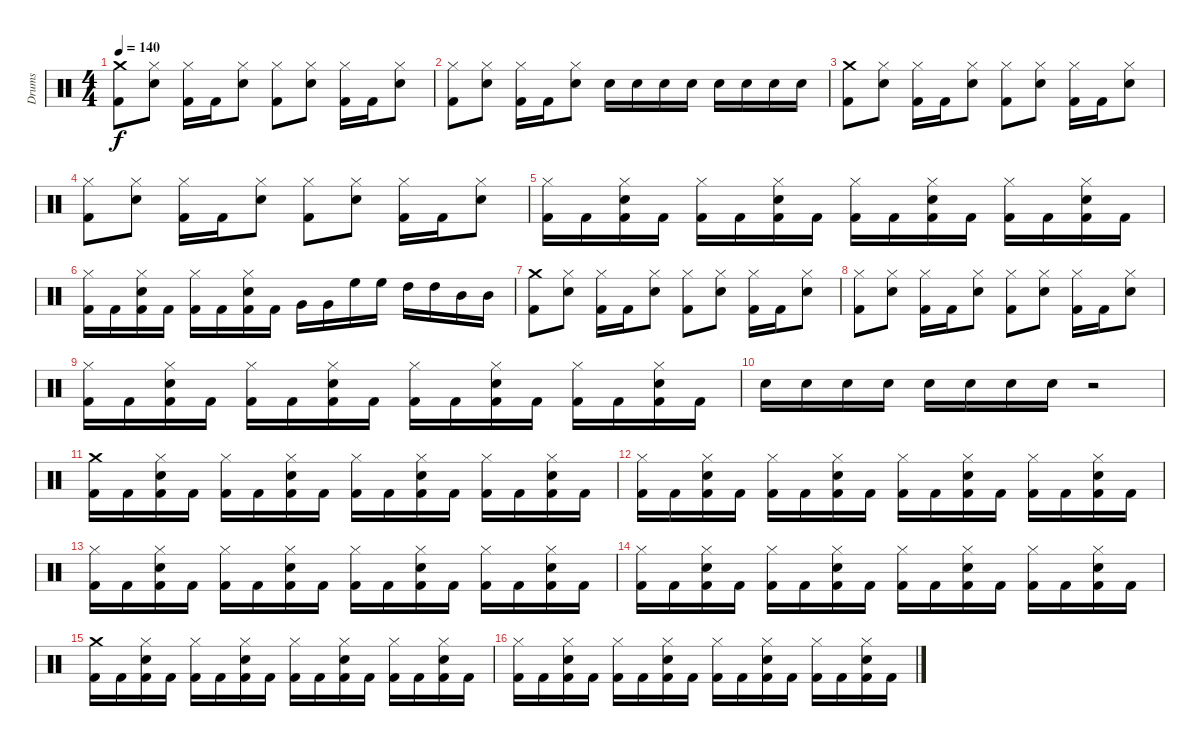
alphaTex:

\track ("Drums" "Drums") {instrument percussion}
\staff {score}
\articulation defaults
\ts (4 4)
\tempo 140
\clef neutral
\ks c
("Crash medium (hit)" "Kick (hit) 2").8{dy f} ("Hi-Hat (closed)" "Electric Snare (hit)").8 ("Hi-Hat (closed)" "Kick (hit) 2").16 "Kick (hit) 2".16 ("Hi-Hat (closed)" "Electric Snare (hit)").8 ("Hi-Hat (closed)" "Kick (hit) 2").8 ("Hi-Hat (closed)" "Electric Snare (hit)").8 ("Hi-Hat (closed)" "Kick (hit) 2").16 "Kick (hit) 2".16 ("Hi-Hat (closed)" "Electric Snare (hit)").8 |
("Hi-Hat (closed)" "Kick (hit) 2").8 ("Hi-Hat (closed)" "Electric Snare (hit)").8 ("Hi-Hat (closed)" "Kick (hit) 2").16 "Kick (hit) 2".16 ("Hi-Hat (closed)" "Electric Snare (hit)").8 "Electric Snare (hit)".16 "Electric Snare (hit)".16 "Electric Snare (hit)".16 "Electric Snare (hit)".16 "Electric Snare (hit)".16 "Electric Snare (hit)".16 "Electric Snare (hit)".16 "Electric Snare (hit)".16 |
("Crash medium (hit)" "Kick (hit) 2").8 ("Hi-Hat (closed)" "Electric Snare (hit)").8 ("Hi-Hat (closed)" "Kick (hit) 2").16 "Kick (hit) 2".16 ("Hi-Hat (closed)" "Electric Snare (hit)").8 ("Hi-Hat (closed)" "Kick (hit) 2").8 ("Hi-Hat (closed)" "Electric Snare (hit)").8 ("Hi-Hat (closed)" "Kick (hit) 2").16 "Kick (hit) 2".16 ("Hi-Hat (closed)" "Electric Snare (hit)").8 |
("Hi-Hat (closed)" "Kick (hit) 2").8 ("Hi-Hat (closed)" "Electric Snare (hit)").8 ("Hi-Hat (closed)" "Kick (hit) 2").16 "Kick (hit) 2".16 ("Hi-Hat (closed)" "Electric Snare (hit)").8 ("Hi-Hat (closed)" "Kick (hit) 2").8 ("Hi-Hat (closed)" "Electric Snare (hit)").8 ("Hi-Hat (closed)" "Kick (hit) 2").16 "Kick (hit) 2".16 ("Hi-Hat (closed)" "Electric Snare (hit)").8 |
("Hi-Hat (closed)" "Kick (hit) 2").16 "Kick (hit) 2".16 ("Hi-Hat (closed)" "Electric Snare (hit)" "Kick (hit) 2").16 "Kick (hit) 2".16 ("Hi-Hat (closed)" "Kick (hit) 2").16 "Kick (hit) 2".16 ("Hi-Hat (closed)" "Electric Snare (hit)" "Kick (hit) 2").16 "Kick (hit) 2".16 ("Hi-Hat (closed)" "Kick (hit) 2").16 "Kick (hit) 2".16 ("Hi-Hat (closed)" "Electric Snare (hit)" "Kick (hit) 2").16 "Kick (hit) 2".16 ("Hi-Hat (closed)" "Kick (hit) 2").16 "Kick (hit) 2".16 ("Hi-Hat (closed)" "Electric Snare (hit)" "Kick (hit) 2").16 "Kick (hit) 2".16 |
("Hi-Hat (closed)" "Kick (hit) 2").16 "Kick (hit) 2".16 ("Hi-Hat (closed)" "Electric Snare (hit)" "Kick (hit) 2").16 "Kick (hit) 2".16 ("Hi-Hat (closed)" "Kick (hit) 2").16 "Kick (hit) 2".16 ("Hi-Hat (closed)" "Electric Snare (hit)" "Kick (hit) 2").16 "Kick (hit) 2".16 "Very Low Tom (hit)".16 "Very Low Tom (hit)".16 "High Floor Tom (hit)".16 "High Floor Tom (hit)".16 "High Tom (hit)".16 "High Tom (hit)".16 "Mid Tom (hit)".16 "Mid Tom (hit)".16 |
("Crash medium (hit)" "Kick (hit) 2").8 ("Hi-Hat (closed)" "Electric Snare (hit)").8 ("Hi-Hat (closed)" "Kick (hit) 2").16 "Kick (hit) 2".16 ("Hi-Hat (closed)" "Electric Snare (hit)").8 ("Hi-Hat (closed)" "Kick (hit) 2").8 ("Hi-Hat (closed)" "Electric Snare (hit)").8 ("Hi-Hat (closed)" "Kick (hit) 2").16 "Kick (hit) 2".16 ("Hi-Hat (closed)" "Electric Snare (hit)").8 |
("Hi-Hat (closed)" "Kick (hit) 2").8 ("Hi-Hat (closed)" "Electric Snare (hit)").8 ("Hi-Hat (closed)" "Kick (hit) 2").16 "Kick (hit) 2".16 ("Hi-Hat (closed)" "Electric Snare (hit)").8 ("Hi-Hat (closed)" "Kick (hit) 2").8 ("Hi-Hat (closed)" "Electric Snare (hit)").8 ("Hi-Hat (closed)" "Kick (hit) 2").16 "Kick (hit) 2".16 ("Hi-Hat (closed)" "Electric Snare (hit)").8 |
("Hi-Hat (closed)" "Kick (hit) 2").16 "Kick (hit) 2".16 ("Hi-Hat (closed)" "Electric Snare (hit)" "Kick (hit) 2").16 "Kick (hit) 2".16 ("Hi-Hat (closed)" "Kick (hit) 2").16 "Kick (hit) 2".16 ("Hi-Hat (closed)" "Electric Snare (hit)" "Kick (hit) 2").16 "Kick (hit) 2".16 ("Hi-Hat (closed)" "Kick (hit) 2").16 "Kick (hit) 2".16 ("Hi-Hat (closed)" "Electric Snare (hit)" "Kick (hit) 2").16 "Kick (hit) 2".16 ("Hi-Hat (closed)" "Kick (hit) 2").16 "Kick (hit) 2".16 ("Hi-Hat (closed)" "Electric Snare (hit)" "Kick (hit) 2").16 "Kick (hit) 2".16 |
"Electric Snare (hit)".16 "Electric Snare (hit)".16 "Electric Snare (hit)".16 "Electric Snare (hit)".16 "Electric Snare (hit)".16 "Electric Snare (hit)".16 "Electric Snare (hit)".16 "Electric Snare (hit)".16 r.2 |
("Crash medium (hit)" "Kick (hit) 2").16 "Kick (hit) 2".16 ("Hi-Hat (closed)" "Electric Snare (hit)" "Kick (hit) 2").16 "Kick (hit) 2".16 ("Hi-Hat (closed)" "Kick (hit) 2").16 "Kick (hit) 2".16 ("Hi-Hat (closed)" "Electric Snare (hit)" "Kick (hit) 2").16 "Kick (hit) 2".16 ("Hi-Hat (closed)" "Kick (hit) 2").16 "Kick (hit) 2".16 ("Hi-Hat (closed)" "Electric Snare (hit)" "Kick (hit) 2").16 "Kick (hit) 2".16 ("Hi-Hat (closed)" "Kick (hit) 2").16 "Kick (hit) 2".16 ("Hi-Hat (closed)" "Electric Snare (hit)" "Kick (hit) 2").16 "Kick (hit) 2".16 |
("Hi-Hat (closed)" "Kick (hit) 2").16 "Kick (hit) 2".16 ("Hi-Hat (closed)" "Electric Snare (hit)" "Kick (hit) 2").16 "Kick (hit) 2".16 ("Hi-Hat (closed)" "Kick (hit) 2").16 "Kick (hit) 2".16 ("Hi-Hat (closed)" "Electric Snare (hit)" "Kick (hit) 2").16 "Kick (hit) 2".16 ("Hi-Hat (closed)" "Kick (hit) 2").16 "Kick (hit) 2".16 ("Hi-Hat (closed)" "Electric Snare (hit)" "Kick (hit) 2").16 "Kick (hit) 2".16 ("Hi-Hat (closed)" "Kick (hit) 2").16 "Kick (hit) 2".16 ("Hi-Hat (closed)" "Electric Snare (hit)" "Kick (hit) 2").16 "Kick (hit) 2".16 |
("Hi-Hat (closed)" "Kick (hit) 2").16 "Kick (hit) 2".16 ("Hi-Hat (closed)" "Electric Snare (hit)" "Kick (hit) 2").16 "Kick (hit) 2".16 ("Hi-Hat (closed)" "Kick (hit) 2").16 "Kick (hit) 2".16 ("Hi-Hat (closed)" "Electric Snare (hit)" "Kick (hit) 2").16 "Kick (hit) 2".16 ("Hi-Hat (closed)" "Kick (hit) 2").16 "Kick (hit) 2".16 ("Hi-Hat (closed)" "Electric Snare (hit)" "Kick (hit) 2").16 "Kick (hit) 2".16 ("Hi-Hat (closed)" "Kick (hit) 2").16 "Kick (hit) 2".16 ("Hi-Hat (closed)" "Electric Snare (hit)" "Kick (hit) 2").16 "Kick (hit) 2".16 |
("Hi-Hat (closed)" "Kick (hit) 2").16 "Kick (hit) 2".16 ("Hi-Hat (closed)" "Electric Snare (hit)" "Kick (hit) 2").16 "Kick (hit) 2".16 ("Hi-Hat (closed)" "Kick (hit) 2").16 "Kick (hit) 2".16 ("Hi-Hat (closed)" "Electric Snare (hit)" "Kick (hit) 2").16 "Kick (hit) 2".16 ("Hi-Hat (closed)" "Kick (hit) 2").16 "Kick (hit) 2".16 ("Hi-Hat (closed)" "Electric Snare (hit)" "Kick (hit) 2").16 "Kick (hit) 2".16 ("Hi-Hat (closed)" "Kick (hit) 2").16 "Kick (hit) 2".16 ("Hi-Hat (closed)" "Electric Snare (hit)" "Kick (hit) 2").16 "Kick (hit) 2".16 |
("Crash medium (hit)" "Kick (hit) 2").16 "Kick (hit) 2".16 ("Hi-Hat (closed)" "Electric Snare (hit)" "Kick (hit) 2").16 "Kick (hit) 2".16 ("Hi-Hat (closed)" "Kick (hit) 2").16 "Kick (hit) 2".16 ("Hi-Hat (closed)" "Electric Snare (hit)" "Kick (hit) 2").16 "Kick (hit) 2".16 ("Hi-Hat (closed)" "Kick (hit) 2").16 "Kick (hit) 2".16 ("Hi-Hat (closed)" "Electric Snare (hit)" "Kick (hit) 2").16 "Kick (hit) 2".16 ("Hi-Hat (closed)" "Kick (hit) 2").16 "Kick (hit) 2".16 ("Hi-Hat (closed)" "Electric Snare (hit)" "Kick (hit) 2").16 "Kick (hit) 2".16 |
("Hi-Hat (closed)" "Kick (hit) 2").16 "Kick (hit) 2".16 ("Hi-Hat (closed)" "Electric Snare (hit)" "Kick (hit) 2").16 "Kick (hit) 2".16 ("Hi-Hat (closed)" "Kick (hit) 2").16 "Kick (hit) 2".16 ("Hi-Hat (closed)" "Electric Snare (hit)" "Kick (hit) 2").16 "Kick (hit) 2".16 ("Hi-Hat (closed)" "Kick (hit) 2").16 "Kick (hit) 2".16 ("Hi-Hat (closed)" "Electric Snare (hit)" "Kick (hit) 2").16 "Kick (hit) 2".16 ("Hi-Hat (closed)" "Kick (hit) 2").16 "Kick (hit) 2".16 ("Hi-Hat (closed)" "Electric Snare (hit)" "Kick (hit) 2").16 "Kick (hit) 2".16
